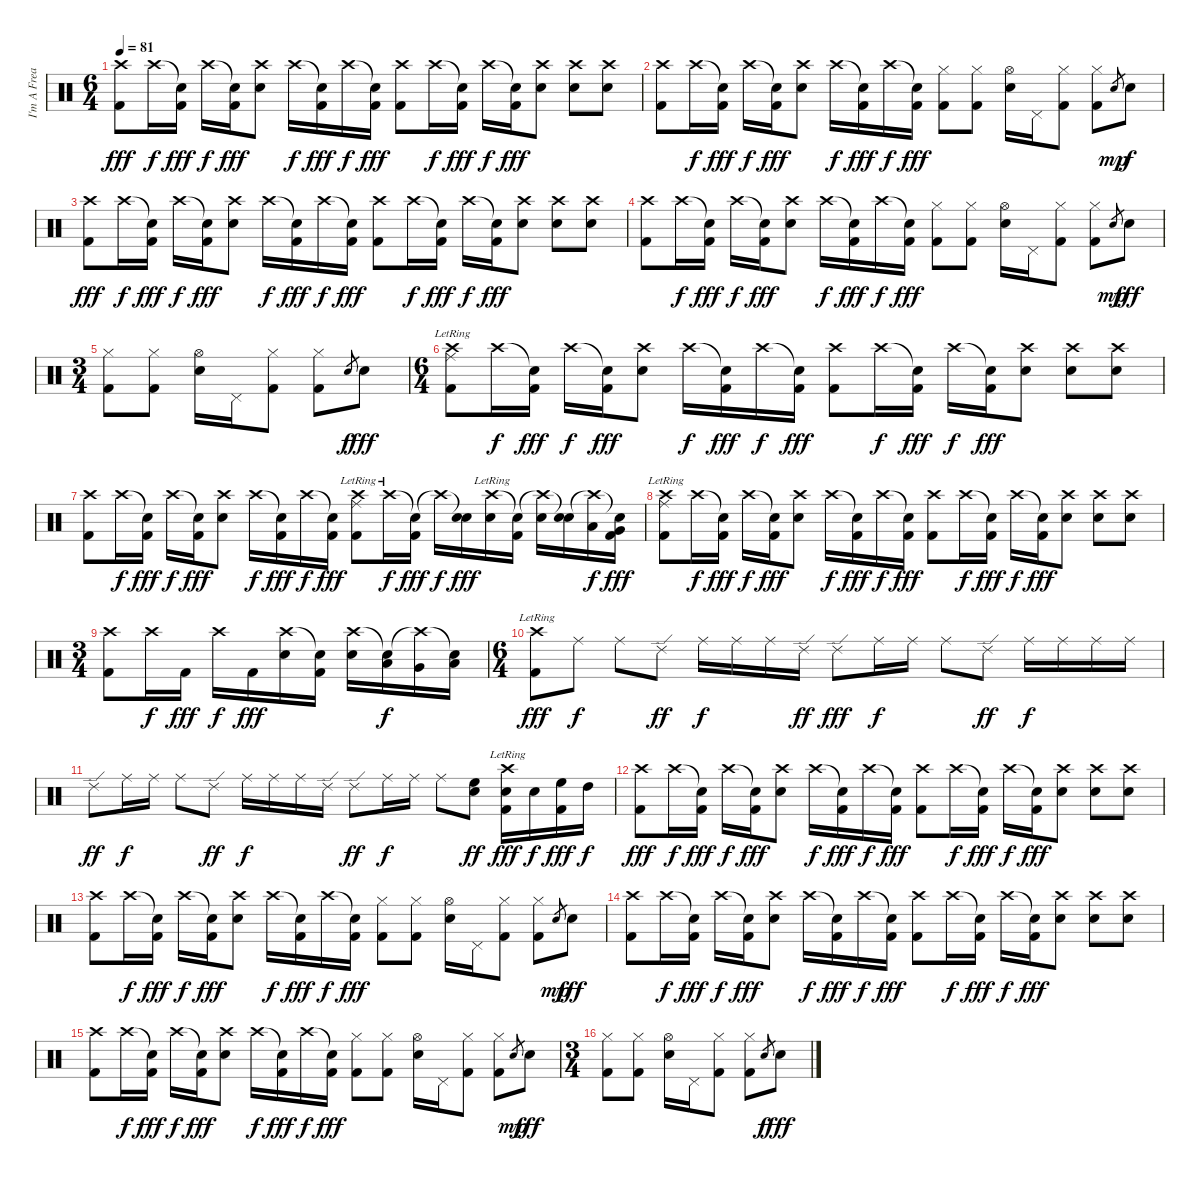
\track ("I'm A Freak" "I'm A Frea") {instrument percussion}
\staff {score}
\articulation defaults
\ts (6 4)
\tempo 81
\clef neutral
\ks c
("Crash high (hit)" "Kick (hit) 2").8{dy fff} "Crash high (hit)".16{dy f} ("Snare (hit)"{t} "Kick (hit) 2").16{dy fff} "Crash high (hit)".16{dy f} ("Snare (hit)"{t} "Kick (hit) 2").16{dy fff} ("Crash high (hit)" "Snare (hit) 2").8 "Crash high (hit)".16{dy f} ("Snare (hit)"{t} "Kick (hit) 2").16{dy fff} "Crash high (hit)".16{dy f} ("Snare (hit)"{t} "Kick (hit) 2").16{dy fff} ("Crash high (hit)" "Kick (hit) 2").8 "Crash high (hit)".16{dy f} ("Snare (hit)"{t} "Kick (hit) 2").16{dy fff} "Crash high (hit)".16{dy f} ("Snare (hit)"{t} "Kick (hit) 2").16{dy fff} ("Crash high (hit)" "Snare (hit) 2").8 ("Crash high (hit)" "Snare (hit) 2").8 ("Crash high (hit)" "Snare (hit) 2").8 |
("Crash high (hit)" "Kick (hit) 2").8 "Crash high (hit)".16{dy f} ("Snare (hit)"{t} "Kick (hit) 2").16{dy fff} "Crash high (hit)".16{dy f} ("Snare (hit)"{t} "Kick (hit) 2").16{dy fff} ("Crash high (hit)" "Snare (hit) 2").8 "Crash high (hit)".16{dy f} ("Snare (hit)"{t} "Kick (hit) 2").16{dy fff} "Crash high (hit)".16{dy f} ("Snare (hit)"{t} "Kick (hit) 2").16{dy fff} ("Hi-Hat (closed)" "Kick (hit) 2").8 ("Hi-Hat (closed)" "Kick (hit) 2").8 ("Hi-Hat (open)" "Snare (hit) 2").16 "Pedal Hi-Hat (hit)".16 ("Hi-Hat (closed)" "Kick (hit) 2").8 ("Hi-Hat (closed)" "Kick (hit) 2").8 "Snare (hit) 2".8{gr dy mp} "Snare (hit) 2".8{dy f} |
("Crash high (hit)" "Kick (hit) 2").8{dy fff} "Crash high (hit)".16{dy f} ("Snare (hit)"{t} "Kick (hit) 2").16{dy fff} "Crash high (hit)".16{dy f} ("Snare (hit)"{t} "Kick (hit) 2").16{dy fff} ("Crash high (hit)" "Snare (hit) 2").8 "Crash high (hit)".16{dy f} ("Snare (hit)"{t} "Kick (hit) 2").16{dy fff} "Crash high (hit)".16{dy f} ("Snare (hit)"{t} "Kick (hit) 2").16{dy fff} ("Crash high (hit)" "Kick (hit) 2").8 "Crash high (hit)".16{dy f} ("Snare (hit)"{t} "Kick (hit) 2").16{dy fff} "Crash high (hit)".16{dy f} ("Snare (hit)"{t} "Kick (hit) 2").16{dy fff} ("Crash high (hit)" "Snare (hit) 2").8 ("Crash high (hit)" "Snare (hit) 2").8 ("Crash high (hit)" "Snare (hit) 2").8 |
("Crash high (hit)" "Kick (hit) 2").8 "Crash high (hit)".16{dy f} ("Snare (hit)"{t} "Kick (hit) 2").16{dy fff} "Crash high (hit)".16{dy f} ("Snare (hit)"{t} "Kick (hit) 2").16{dy fff} ("Crash high (hit)" "Snare (hit) 2").8 "Crash high (hit)".16{dy f} ("Snare (hit)"{t} "Kick (hit) 2").16{dy fff} "Crash high (hit)".16{dy f} ("Snare (hit)"{t} "Kick (hit) 2").16{dy fff} ("Hi-Hat (closed)" "Kick (hit) 2").8 ("Hi-Hat (closed)" "Kick (hit) 2").8 ("Hi-Hat (open)" "Snare (hit) 2").16 "Pedal Hi-Hat (hit)".16 ("Hi-Hat (closed)" "Kick (hit) 2").8 ("Hi-Hat (closed)" "Kick (hit) 2").8 "Snare (hit) 2".8{gr dy mp} "Snare (hit) 2".8{dy fff} |
\ts (3 4)
("Hi-Hat (closed)" "Kick (hit) 2").8 ("Hi-Hat (closed)" "Kick (hit) 2").8 ("Hi-Hat (open)" "Snare (hit) 2").16 "Pedal Hi-Hat (hit)".16 ("Hi-Hat (closed)" "Kick (hit) 2").8 ("Hi-Hat (closed)" "Kick (hit) 2").8 "Snare (hit) 2".8{gr dy f} "Snare (hit) 2".8{dy fff} |
\ts (6 4)
("Crash high (hit)" "Ride (middle)"{lr} "Kick (hit) 2").8 "Crash high (hit)".16{dy f} ("Snare (hit)"{t} "Kick (hit) 2").16{dy fff} "Crash high (hit)".16{dy f} ("Snare (hit)"{t} "Kick (hit) 2").16{dy fff} ("Crash high (hit)" "Snare (hit) 2").8 "Crash high (hit)".16{dy f} ("Snare (hit)"{t} "Kick (hit) 2").16{dy fff} "Crash high (hit)".16{dy f} ("Snare (hit)"{t} "Kick (hit) 2").16{dy fff} ("Crash high (hit)" "Kick (hit) 2").8 "Crash high (hit)".16{dy f} ("Snare (hit)"{t} "Kick (hit) 2").16{dy fff} "Crash high (hit)".16{dy f} ("Snare (hit)"{t} "Kick (hit) 2").16{dy fff} ("Crash high (hit)" "Snare (hit) 2").8 ("Crash high (hit)" "Snare (hit) 2").8 ("Crash high (hit)" "Snare (hit) 2").8 |
("Crash high (hit)" "Kick (hit) 2").8 "Crash high (hit)".16{dy f} ("Snare (hit)"{t} "Kick (hit) 2").16{dy fff} "Crash high (hit)".16{dy f} ("Snare (hit)"{t} "Kick (hit) 2").16{dy fff} ("Crash high (hit)" "Snare (hit) 2").8 "Crash high (hit)".16{dy f} ("Snare (hit)"{t} "Kick (hit) 2").16{dy fff} "Crash high (hit)".16{dy f} ("Snare (hit)"{t} "Kick (hit) 2").16{dy fff} ("Crash high (hit)" "Ride (middle)"{lr} "Kick (hit) 2").8 "Crash high (hit)"{lr}.16{dy f} ("Snare (hit)"{t} "Kick (hit) 2").16{dy fff} "Crash high (hit)"{t}.16{dy f} ("Snare (hit)"{t} "Snare (hit) 2").16{dy fff} ("Crash high (hit)"{lr} "Snare (hit) 2").16 ("Snare (hit)"{t} "Kick (hit) 2").16 ("Crash high (hit)"{t} "Snare (hit) 2").16 ("Snare (hit)"{t} "Snare (hit) 2").16 ("Crash high (hit)"{t} "Low Tom (hit)").16{dy f} ("Snare (hit)"{t} "Very Low Tom (hit)" "Kick (hit) 2").16{dy fff} |
("Crash high (hit)" "Ride (middle)"{lr} "Kick (hit) 2").8 "Crash high (hit)".16{dy f} ("Snare (hit)"{t} "Kick (hit) 2").16{dy fff} "Crash high (hit)".16{dy f} ("Snare (hit)"{t} "Kick (hit) 2").16{dy fff} ("Crash high (hit)" "Snare (hit) 2").8 "Crash high (hit)".16{dy f} ("Snare (hit)"{t} "Kick (hit) 2").16{dy fff} "Crash high (hit)".16{dy f} ("Snare (hit)"{t} "Kick (hit) 2").16{dy fff} ("Crash high (hit)" "Kick (hit) 2").8 "Crash high (hit)".16{dy f} ("Snare (hit)"{t} "Kick (hit) 2").16{dy fff} "Crash high (hit)".16{dy f} ("Snare (hit)"{t} "Kick (hit) 2").16{dy fff} ("Crash high (hit)" "Snare (hit) 2").8 ("Crash high (hit)" "Snare (hit) 2").8 ("Crash high (hit)" "Snare (hit) 2").8 |
\ts (3 4)
("Crash high (hit)" "Kick (hit) 2").8 "Crash high (hit)".16{dy f} "Kick (hit) 2".16{dy fff} "Crash high (hit)".16{dy f} "Kick (hit) 2".16{dy fff} ("Crash high (hit)" "Snare (hit) 2").16 ("Snare (hit)"{t} "Kick (hit) 2").16 ("Crash high (hit)" "Snare (hit) 2").16 ("Snare (hit)"{t} "Low Tom (hit)").16{dy f} ("Crash high (hit)"{t} "Very Low Tom (hit)").16 ("Snare (hit)"{t} "Low Floor Tom (hit)").16 |
\ts (6 4)
("Crash high (hit)"{lr} "Kick (hit) 2").8{dy fff} "Ride (middle)".8{dy f} "Ride (middle)".8 "Ride (edge) 2".8{dy ff} "Ride (middle)".16{dy f} "Ride (middle)".16 "Ride (middle)".16 "Ride (edge) 2".16{dy ff} "Ride (edge) 2".8{dy fff} "Ride (middle)".16{dy f} "Ride (middle)".16 "Ride (middle)".8 "Ride (edge) 2".8{dy ff} "Ride (middle)".16{dy f} "Ride (middle)".16 "Ride (middle)".16 "Ride (middle)".16 |
"Ride (edge) 2".8{dy ff} "Ride (middle)".16{dy f} "Ride (middle)".16 "Ride (middle)".8 "Ride (edge) 2".8{dy ff} "Ride (middle)".16{dy f} "Ride (middle)".16 "Ride (middle)".16 "Ride (edge) 2".16 "Ride (edge) 2".8{dy ff} "Ride (middle)".16{dy f} "Ride (middle)".16 "Ride (middle)".8 ("Snare (hit) 2" "High Floor Tom (hit)").8{dy ff} ("Crash high (hit)"{lr} "Snare (hit) 2" "Kick (hit) 2").16{dy fff} "Snare (hit) 2".16{dy f} ("High Floor Tom (hit)" "Kick (hit) 2").16{dy fff} "High Tom (hit)".16{dy f} |
("Crash high (hit)" "Kick (hit) 2").8{dy fff} "Crash high (hit)".16{dy f} ("Snare (hit)"{t} "Kick (hit) 2").16{dy fff} "Crash high (hit)".16{dy f} ("Snare (hit)"{t} "Kick (hit) 2").16{dy fff} ("Crash high (hit)" "Snare (hit) 2").8 "Crash high (hit)".16{dy f} ("Snare (hit)"{t} "Kick (hit) 2").16{dy fff} "Crash high (hit)".16{dy f} ("Snare (hit)"{t} "Kick (hit) 2").16{dy fff} ("Crash high (hit)" "Kick (hit) 2").8 "Crash high (hit)".16{dy f} ("Snare (hit)"{t} "Kick (hit) 2").16{dy fff} "Crash high (hit)".16{dy f} ("Snare (hit)"{t} "Kick (hit) 2").16{dy fff} ("Crash high (hit)" "Snare (hit) 2").8 ("Crash high (hit)" "Snare (hit) 2").8 ("Crash high (hit)" "Snare (hit) 2").8 |
("Crash high (hit)" "Kick (hit) 2").8 "Crash high (hit)".16{dy f} ("Snare (hit)"{t} "Kick (hit) 2").16{dy fff} "Crash high (hit)".16{dy f} ("Snare (hit)"{t} "Kick (hit) 2").16{dy fff} ("Crash high (hit)" "Snare (hit) 2").8 "Crash high (hit)".16{dy f} ("Snare (hit)"{t} "Kick (hit) 2").16{dy fff} "Crash high (hit)".16{dy f} ("Snare (hit)"{t} "Kick (hit) 2").16{dy fff} ("Hi-Hat (closed)" "Kick (hit) 2").8 ("Hi-Hat (closed)" "Kick (hit) 2").8 ("Hi-Hat (open)" "Snare (hit) 2").16 "Pedal Hi-Hat (hit)".16 ("Hi-Hat (closed)" "Kick (hit) 2").8 ("Hi-Hat (closed)" "Kick (hit) 2").8 "Snare (hit) 2".8{gr dy mp} "Snare (hit) 2".8{dy fff} |
("Crash high (hit)" "Kick (hit) 2").8 "Crash high (hit)".16{dy f} ("Snare (hit)"{t} "Kick (hit) 2").16{dy fff} "Crash high (hit)".16{dy f} ("Snare (hit)"{t} "Kick (hit) 2").16{dy fff} ("Crash high (hit)" "Snare (hit) 2").8 "Crash high (hit)".16{dy f} ("Snare (hit)"{t} "Kick (hit) 2").16{dy fff} "Crash high (hit)".16{dy f} ("Snare (hit)"{t} "Kick (hit) 2").16{dy fff} ("Crash high (hit)" "Kick (hit) 2").8 "Crash high (hit)".16{dy f} ("Snare (hit)"{t} "Kick (hit) 2").16{dy fff} "Crash high (hit)".16{dy f} ("Snare (hit)"{t} "Kick (hit) 2").16{dy fff} ("Crash high (hit)" "Snare (hit) 2").8 ("Crash high (hit)" "Snare (hit) 2").8 ("Crash high (hit)" "Snare (hit) 2").8 |
("Crash high (hit)" "Kick (hit) 2").8 "Crash high (hit)".16{dy f} ("Snare (hit)"{t} "Kick (hit) 2").16{dy fff} "Crash high (hit)".16{dy f} ("Snare (hit)"{t} "Kick (hit) 2").16{dy fff} ("Crash high (hit)" "Snare (hit) 2").8 "Crash high (hit)".16{dy f} ("Snare (hit)"{t} "Kick (hit) 2").16{dy fff} "Crash high (hit)".16{dy f} ("Snare (hit)"{t} "Kick (hit) 2").16{dy fff} ("Hi-Hat (closed)" "Kick (hit) 2").8 ("Hi-Hat (closed)" "Kick (hit) 2").8 ("Hi-Hat (open)" "Snare (hit) 2").16 "Pedal Hi-Hat (hit)".16 ("Hi-Hat (closed)" "Kick (hit) 2").8 ("Hi-Hat (closed)" "Kick (hit) 2").8 "Snare (hit) 2".8{gr dy mp} "Snare (hit) 2".8{dy fff} |
\ts (3 4)
("Hi-Hat (closed)" "Kick (hit) 2").8 ("Hi-Hat (closed)" "Kick (hit) 2").8 ("Hi-Hat (open)" "Snare (hit) 2").16 "Pedal Hi-Hat (hit)".16 ("Hi-Hat (closed)" "Kick (hit) 2").8 ("Hi-Hat (closed)" "Kick (hit) 2").8 "Snare (hit) 2".8{gr dy f} "Snare (hit) 2".8{dy fff}
